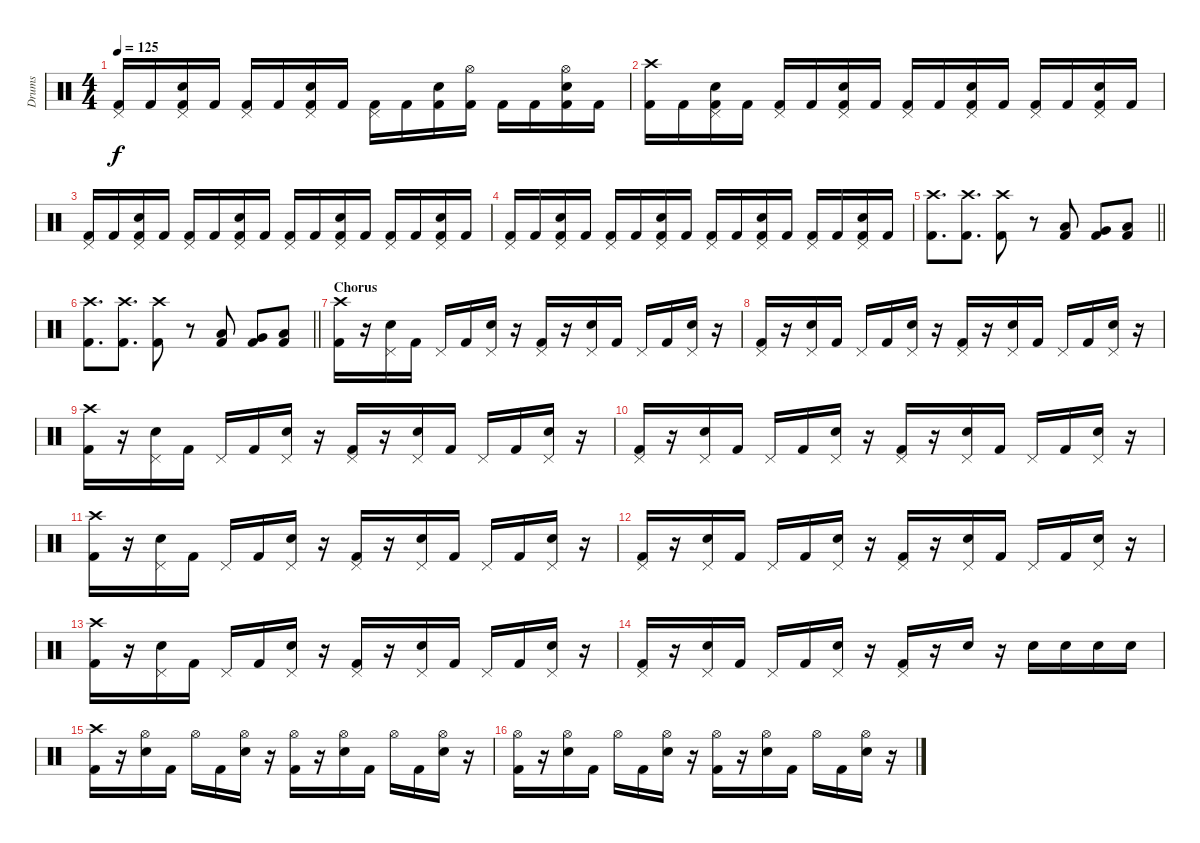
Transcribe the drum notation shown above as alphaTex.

\track ("Drums" "Drums") {instrument percussion}
\staff {score}
\articulation defaults
\ts (4 4)
\tempo 125
\clef neutral
\ks c
("Pedal Hi-Hat (hit)" "Kick (hit) 2").16{dy f} "Kick (hit) 2".16 ("Pedal Hi-Hat (hit)" "Snare (hit) 2" "Kick (hit) 2").16 "Kick (hit) 2".16 ("Pedal Hi-Hat (hit)" "Kick (hit) 2").16 "Kick (hit) 2".16 ("Pedal Hi-Hat (hit)" "Snare (hit) 2" "Kick (hit) 2").16 "Kick (hit) 2".16 ("Pedal Hi-Hat (hit)" "Kick (hit) 2").16 "Kick (hit) 2".16 ("Snare (hit) 2" "Kick (hit) 2").16 ("Hi-Hat (open)" "Kick (hit) 2").16 "Kick (hit) 2".16 "Kick (hit) 2".16 ("Hi-Hat (open)" "Snare (hit) 2" "Kick (hit) 2").16 "Kick (hit) 2".16 |
("Crash high (hit)" "Kick (hit) 2").16 "Kick (hit) 2".16 ("Pedal Hi-Hat (hit)" "Snare (hit) 2" "Kick (hit) 2").16 "Kick (hit) 2".16 ("Pedal Hi-Hat (hit)" "Kick (hit) 2").16 "Kick (hit) 2".16 ("Pedal Hi-Hat (hit)" "Snare (hit) 2" "Kick (hit) 2").16 "Kick (hit) 2".16 ("Pedal Hi-Hat (hit)" "Kick (hit) 2").16 "Kick (hit) 2".16 ("Pedal Hi-Hat (hit)" "Snare (hit) 2" "Kick (hit) 2").16 "Kick (hit) 2".16 ("Pedal Hi-Hat (hit)" "Kick (hit) 2").16 "Kick (hit) 2".16 ("Pedal Hi-Hat (hit)" "Snare (hit) 2" "Kick (hit) 2").16 "Kick (hit) 2".16 |
("Pedal Hi-Hat (hit)" "Kick (hit) 2").16 "Kick (hit) 2".16 ("Pedal Hi-Hat (hit)" "Snare (hit) 2" "Kick (hit) 2").16 "Kick (hit) 2".16 ("Pedal Hi-Hat (hit)" "Kick (hit) 2").16 "Kick (hit) 2".16 ("Pedal Hi-Hat (hit)" "Snare (hit) 2" "Kick (hit) 2").16 "Kick (hit) 2".16 ("Pedal Hi-Hat (hit)" "Kick (hit) 2").16 "Kick (hit) 2".16 ("Pedal Hi-Hat (hit)" "Snare (hit) 2" "Kick (hit) 2").16 "Kick (hit) 2".16 ("Pedal Hi-Hat (hit)" "Kick (hit) 2").16 "Kick (hit) 2".16 ("Pedal Hi-Hat (hit)" "Snare (hit) 2" "Kick (hit) 2").16 "Kick (hit) 2".16 |
("Pedal Hi-Hat (hit)" "Kick (hit) 2").16 "Kick (hit) 2".16 ("Pedal Hi-Hat (hit)" "Snare (hit) 2" "Kick (hit) 2").16 "Kick (hit) 2".16 ("Pedal Hi-Hat (hit)" "Kick (hit) 2").16 "Kick (hit) 2".16 ("Pedal Hi-Hat (hit)" "Snare (hit) 2" "Kick (hit) 2").16 "Kick (hit) 2".16 ("Pedal Hi-Hat (hit)" "Kick (hit) 2").16 "Kick (hit) 2".16 ("Pedal Hi-Hat (hit)" "Snare (hit) 2" "Kick (hit) 2").16 "Kick (hit) 2".16 ("Pedal Hi-Hat (hit)" "Kick (hit) 2").16 "Kick (hit) 2".16 ("Pedal Hi-Hat (hit)" "Snare (hit) 2" "Kick (hit) 2").16 "Kick (hit) 2".16 |
\barLineRight lightlight
("Crash high (hit)" "Kick (hit) 2").8{d} ("Crash high (hit)" "Kick (hit) 2").8{d} ("Crash high (hit)" "Kick (hit) 2").8 r.8 ("Low Tom (hit)" "Kick (hit) 2").8 ("Very Low Tom (hit)" "Kick (hit) 2").8 ("Low Tom (hit)" "Kick (hit) 2").8 |
\barLineRight lightlight
("Crash high (hit)" "Kick (hit) 2").8{d} ("Crash high (hit)" "Kick (hit) 2").8{d} ("Crash high (hit)" "Kick (hit) 2").8 r.8 ("Low Tom (hit)" "Kick (hit) 2").8 ("Very Low Tom (hit)" "Kick (hit) 2").8 ("Low Tom (hit)" "Kick (hit) 2").8 |
\section ("" "Chorus")
("Crash high (hit)" "Kick (hit) 2").16 r.16 ("Pedal Hi-Hat (hit)" "Snare (hit) 2").16 "Kick (hit) 2".16 "Pedal Hi-Hat (hit)".16 "Kick (hit) 2".16 ("Pedal Hi-Hat (hit)" "Snare (hit) 2").16 r.16 ("Pedal Hi-Hat (hit)" "Kick (hit) 2").16 r.16 ("Pedal Hi-Hat (hit)" "Snare (hit) 2").16 "Kick (hit) 2".16 "Pedal Hi-Hat (hit)".16 "Kick (hit) 2".16 ("Pedal Hi-Hat (hit)" "Snare (hit) 2").16 r.16 |
("Pedal Hi-Hat (hit)" "Kick (hit) 2").16 r.16 ("Pedal Hi-Hat (hit)" "Snare (hit) 2").16 "Kick (hit) 2".16 "Pedal Hi-Hat (hit)".16 "Kick (hit) 2".16 ("Pedal Hi-Hat (hit)" "Snare (hit) 2").16 r.16 ("Pedal Hi-Hat (hit)" "Kick (hit) 2").16 r.16 ("Pedal Hi-Hat (hit)" "Snare (hit) 2").16 "Kick (hit) 2".16 "Pedal Hi-Hat (hit)".16 "Kick (hit) 2".16 ("Pedal Hi-Hat (hit)" "Snare (hit) 2").16 r.16 |
("Crash high (hit)" "Kick (hit) 2").16 r.16 ("Pedal Hi-Hat (hit)" "Snare (hit) 2").16 "Kick (hit) 2".16 "Pedal Hi-Hat (hit)".16 "Kick (hit) 2".16 ("Pedal Hi-Hat (hit)" "Snare (hit) 2").16 r.16 ("Pedal Hi-Hat (hit)" "Kick (hit) 2").16 r.16 ("Pedal Hi-Hat (hit)" "Snare (hit) 2").16 "Kick (hit) 2".16 "Pedal Hi-Hat (hit)".16 "Kick (hit) 2".16 ("Pedal Hi-Hat (hit)" "Snare (hit) 2").16 r.16 |
("Pedal Hi-Hat (hit)" "Kick (hit) 2").16 r.16 ("Pedal Hi-Hat (hit)" "Snare (hit) 2").16 "Kick (hit) 2".16 "Pedal Hi-Hat (hit)".16 "Kick (hit) 2".16 ("Pedal Hi-Hat (hit)" "Snare (hit) 2").16 r.16 ("Pedal Hi-Hat (hit)" "Kick (hit) 2").16 r.16 ("Pedal Hi-Hat (hit)" "Snare (hit) 2").16 "Kick (hit) 2".16 "Pedal Hi-Hat (hit)".16 "Kick (hit) 2".16 ("Pedal Hi-Hat (hit)" "Snare (hit) 2").16 r.16 |
("Crash high (hit)" "Kick (hit) 2").16 r.16 ("Pedal Hi-Hat (hit)" "Snare (hit) 2").16 "Kick (hit) 2".16 "Pedal Hi-Hat (hit)".16 "Kick (hit) 2".16 ("Pedal Hi-Hat (hit)" "Snare (hit) 2").16 r.16 ("Pedal Hi-Hat (hit)" "Kick (hit) 2").16 r.16 ("Pedal Hi-Hat (hit)" "Snare (hit) 2").16 "Kick (hit) 2".16 "Pedal Hi-Hat (hit)".16 "Kick (hit) 2".16 ("Pedal Hi-Hat (hit)" "Snare (hit) 2").16 r.16 |
("Pedal Hi-Hat (hit)" "Kick (hit) 2").16 r.16 ("Pedal Hi-Hat (hit)" "Snare (hit) 2").16 "Kick (hit) 2".16 "Pedal Hi-Hat (hit)".16 "Kick (hit) 2".16 ("Pedal Hi-Hat (hit)" "Snare (hit) 2").16 r.16 ("Pedal Hi-Hat (hit)" "Kick (hit) 2").16 r.16 ("Pedal Hi-Hat (hit)" "Snare (hit) 2").16 "Kick (hit) 2".16 "Pedal Hi-Hat (hit)".16 "Kick (hit) 2".16 ("Pedal Hi-Hat (hit)" "Snare (hit) 2").16 r.16 |
("Crash high (hit)" "Kick (hit) 2").16 r.16 ("Pedal Hi-Hat (hit)" "Snare (hit) 2").16 "Kick (hit) 2".16 "Pedal Hi-Hat (hit)".16 "Kick (hit) 2".16 ("Pedal Hi-Hat (hit)" "Snare (hit) 2").16 r.16 ("Pedal Hi-Hat (hit)" "Kick (hit) 2").16 r.16 ("Pedal Hi-Hat (hit)" "Snare (hit) 2").16 "Kick (hit) 2".16 "Pedal Hi-Hat (hit)".16 "Kick (hit) 2".16 ("Pedal Hi-Hat (hit)" "Snare (hit) 2").16 r.16 |
("Pedal Hi-Hat (hit)" "Kick (hit) 2").16 r.16 ("Pedal Hi-Hat (hit)" "Snare (hit) 2").16 "Kick (hit) 2".16 "Pedal Hi-Hat (hit)".16 "Kick (hit) 2".16 ("Pedal Hi-Hat (hit)" "Snare (hit) 2").16 r.16 ("Pedal Hi-Hat (hit)" "Kick (hit) 2").16 r.16 "Snare (hit) 2".16 r.16 "Snare (hit) 2".16 "Snare (hit) 2".16 "Snare (hit) 2".16 "Snare (hit) 2".16 |
("Crash high (hit)" "Kick (hit) 2").16 r.16 ("Hi-Hat (open)" "Snare (hit) 2").16 "Kick (hit) 2".16 "Hi-Hat (open)".16 "Kick (hit) 2".16 ("Hi-Hat (open)" "Snare (hit) 2").16 r.16 ("Hi-Hat (open)" "Kick (hit) 2").16 r.16 ("Hi-Hat (open)" "Snare (hit) 2").16 "Kick (hit) 2".16 "Hi-Hat (open)".16 "Kick (hit) 2".16 ("Hi-Hat (open)" "Snare (hit) 2").16 r.16 |
("Hi-Hat (open)" "Kick (hit) 2").16 r.16 ("Hi-Hat (open)" "Snare (hit) 2").16 "Kick (hit) 2".16 "Hi-Hat (open)".16 "Kick (hit) 2".16 ("Hi-Hat (open)" "Snare (hit) 2").16 r.16 ("Hi-Hat (open)" "Kick (hit) 2").16 r.16 ("Hi-Hat (open)" "Snare (hit) 2").16 "Kick (hit) 2".16 "Hi-Hat (open)".16 "Kick (hit) 2".16 ("Hi-Hat (open)" "Snare (hit) 2").16 r.16
